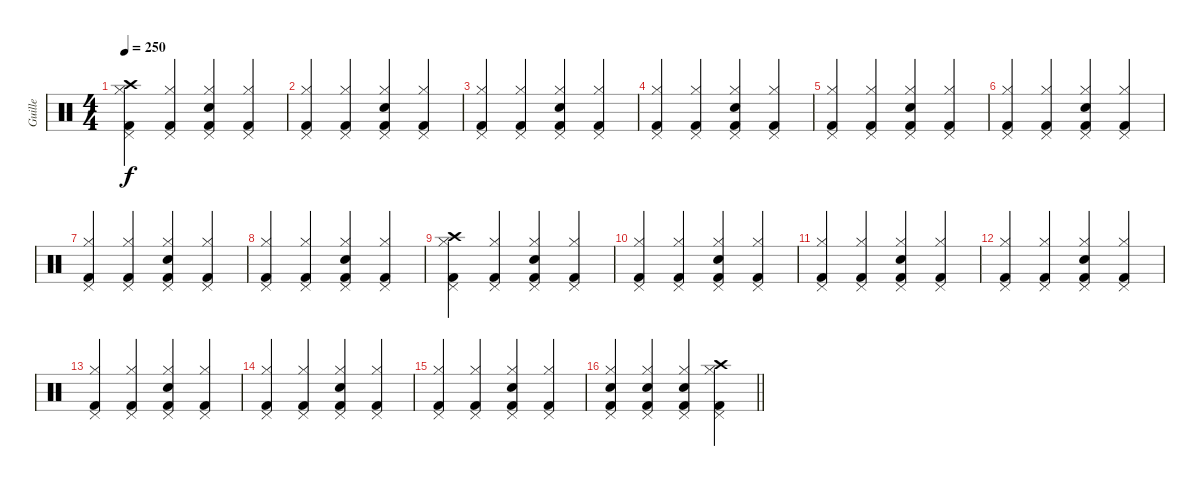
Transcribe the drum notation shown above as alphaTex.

\track ("Guille" "Guille") {instrument percussion}
\staff
\articulation defaults
\ts (4 4)
\tempo 250
\clef neutral
\ks c
("Kick (hit) 2" "Hi-Hat (closed)" "Pedal Hi-Hat (hit)" "Crash high (hit)").4{dy f} ("Kick (hit) 2" "Hi-Hat (closed)" "Pedal Hi-Hat (hit)").4 ("Kick (hit) 2" "Electric Snare (hit)" "Hi-Hat (closed)" "Pedal Hi-Hat (hit)").4 ("Kick (hit) 2" "Hi-Hat (closed)" "Pedal Hi-Hat (hit)").4 |
("Kick (hit) 2" "Hi-Hat (closed)" "Pedal Hi-Hat (hit)").4 ("Kick (hit) 2" "Hi-Hat (closed)" "Pedal Hi-Hat (hit)").4 ("Kick (hit) 2" "Electric Snare (hit)" "Hi-Hat (closed)" "Pedal Hi-Hat (hit)").4 ("Kick (hit) 2" "Hi-Hat (closed)" "Pedal Hi-Hat (hit)").4 |
("Kick (hit) 2" "Hi-Hat (closed)" "Pedal Hi-Hat (hit)").4 ("Kick (hit) 2" "Hi-Hat (closed)" "Pedal Hi-Hat (hit)").4 ("Kick (hit) 2" "Electric Snare (hit)" "Hi-Hat (closed)" "Pedal Hi-Hat (hit)").4 ("Kick (hit) 2" "Hi-Hat (closed)" "Pedal Hi-Hat (hit)").4 |
("Kick (hit) 2" "Hi-Hat (closed)" "Pedal Hi-Hat (hit)").4 ("Kick (hit) 2" "Hi-Hat (closed)" "Pedal Hi-Hat (hit)").4 ("Kick (hit) 2" "Electric Snare (hit)" "Hi-Hat (closed)" "Pedal Hi-Hat (hit)").4 ("Kick (hit) 2" "Hi-Hat (closed)" "Pedal Hi-Hat (hit)").4 |
("Kick (hit) 2" "Hi-Hat (closed)" "Pedal Hi-Hat (hit)").4 ("Kick (hit) 2" "Hi-Hat (closed)" "Pedal Hi-Hat (hit)").4 ("Kick (hit) 2" "Electric Snare (hit)" "Hi-Hat (closed)" "Pedal Hi-Hat (hit)").4 ("Kick (hit) 2" "Hi-Hat (closed)" "Pedal Hi-Hat (hit)").4 |
("Kick (hit) 2" "Hi-Hat (closed)" "Pedal Hi-Hat (hit)").4 ("Kick (hit) 2" "Hi-Hat (closed)" "Pedal Hi-Hat (hit)").4 ("Kick (hit) 2" "Electric Snare (hit)" "Hi-Hat (closed)" "Pedal Hi-Hat (hit)").4 ("Kick (hit) 2" "Hi-Hat (closed)" "Pedal Hi-Hat (hit)").4 |
("Kick (hit) 2" "Hi-Hat (closed)" "Pedal Hi-Hat (hit)").4 ("Kick (hit) 2" "Hi-Hat (closed)" "Pedal Hi-Hat (hit)").4 ("Kick (hit) 2" "Electric Snare (hit)" "Hi-Hat (closed)" "Pedal Hi-Hat (hit)").4 ("Kick (hit) 2" "Hi-Hat (closed)" "Pedal Hi-Hat (hit)").4 |
("Kick (hit) 2" "Hi-Hat (closed)" "Pedal Hi-Hat (hit)").4 ("Kick (hit) 2" "Hi-Hat (closed)" "Pedal Hi-Hat (hit)").4 ("Kick (hit) 2" "Electric Snare (hit)" "Hi-Hat (closed)" "Pedal Hi-Hat (hit)").4 ("Kick (hit) 2" "Hi-Hat (closed)" "Pedal Hi-Hat (hit)").4 |
("Kick (hit) 2" "Hi-Hat (closed)" "Pedal Hi-Hat (hit)" "Crash high (hit)").4 ("Kick (hit) 2" "Hi-Hat (closed)" "Pedal Hi-Hat (hit)").4 ("Kick (hit) 2" "Electric Snare (hit)" "Hi-Hat (closed)" "Pedal Hi-Hat (hit)").4 ("Kick (hit) 2" "Hi-Hat (closed)" "Pedal Hi-Hat (hit)").4 |
("Kick (hit) 2" "Hi-Hat (closed)" "Pedal Hi-Hat (hit)").4 ("Kick (hit) 2" "Hi-Hat (closed)" "Pedal Hi-Hat (hit)").4 ("Kick (hit) 2" "Electric Snare (hit)" "Hi-Hat (closed)" "Pedal Hi-Hat (hit)").4 ("Kick (hit) 2" "Hi-Hat (closed)" "Pedal Hi-Hat (hit)").4 |
("Kick (hit) 2" "Hi-Hat (closed)" "Pedal Hi-Hat (hit)").4 ("Kick (hit) 2" "Hi-Hat (closed)" "Pedal Hi-Hat (hit)").4 ("Kick (hit) 2" "Electric Snare (hit)" "Hi-Hat (closed)" "Pedal Hi-Hat (hit)").4 ("Kick (hit) 2" "Hi-Hat (closed)" "Pedal Hi-Hat (hit)").4 |
("Kick (hit) 2" "Hi-Hat (closed)" "Pedal Hi-Hat (hit)").4 ("Kick (hit) 2" "Hi-Hat (closed)" "Pedal Hi-Hat (hit)").4 ("Kick (hit) 2" "Electric Snare (hit)" "Hi-Hat (closed)" "Pedal Hi-Hat (hit)").4 ("Kick (hit) 2" "Hi-Hat (closed)" "Pedal Hi-Hat (hit)").4 |
("Kick (hit) 2" "Hi-Hat (closed)" "Pedal Hi-Hat (hit)").4 ("Kick (hit) 2" "Hi-Hat (closed)" "Pedal Hi-Hat (hit)").4 ("Kick (hit) 2" "Electric Snare (hit)" "Hi-Hat (closed)" "Pedal Hi-Hat (hit)").4 ("Kick (hit) 2" "Hi-Hat (closed)" "Pedal Hi-Hat (hit)").4 |
("Kick (hit) 2" "Hi-Hat (closed)" "Pedal Hi-Hat (hit)").4 ("Kick (hit) 2" "Hi-Hat (closed)" "Pedal Hi-Hat (hit)").4 ("Kick (hit) 2" "Electric Snare (hit)" "Hi-Hat (closed)" "Pedal Hi-Hat (hit)").4 ("Kick (hit) 2" "Hi-Hat (closed)" "Pedal Hi-Hat (hit)").4 |
("Kick (hit) 2" "Hi-Hat (closed)" "Pedal Hi-Hat (hit)").4 ("Kick (hit) 2" "Hi-Hat (closed)" "Pedal Hi-Hat (hit)").4 ("Kick (hit) 2" "Electric Snare (hit)" "Hi-Hat (closed)" "Pedal Hi-Hat (hit)").4 ("Kick (hit) 2" "Hi-Hat (closed)" "Pedal Hi-Hat (hit)").4 |
\barLineRight lightlight
("Kick (hit) 2" "Electric Snare (hit)" "Hi-Hat (closed)" "Pedal Hi-Hat (hit)").4 ("Kick (hit) 2" "Electric Snare (hit)" "Hi-Hat (closed)" "Pedal Hi-Hat (hit)").4 ("Kick (hit) 2" "Electric Snare (hit)" "Hi-Hat (closed)" "Pedal Hi-Hat (hit)").4 ("Kick (hit) 2" "Hi-Hat (closed)" "Pedal Hi-Hat (hit)" "Crash high (hit)").4
